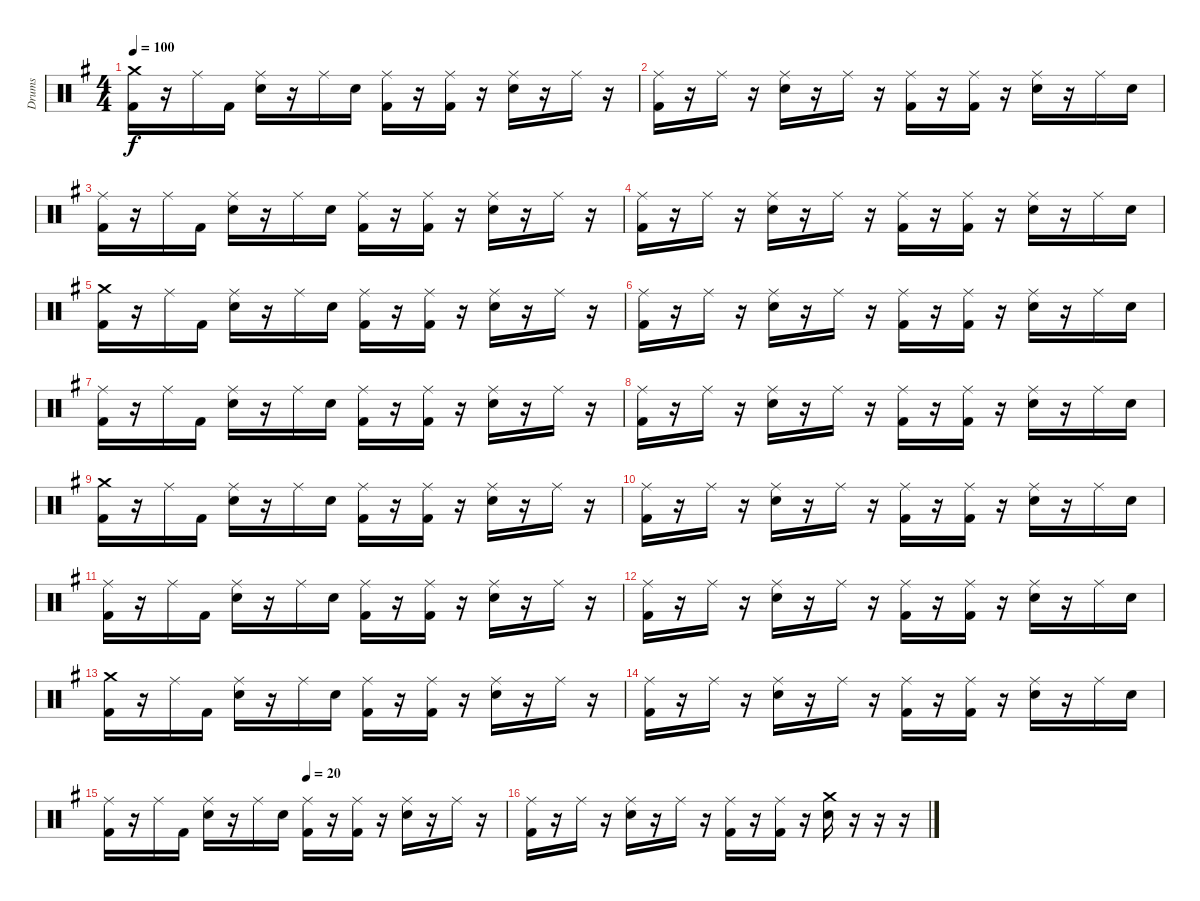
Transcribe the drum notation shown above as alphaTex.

\track ("Drums" "Drums") {instrument percussion}
\staff {score}
\articulation defaults
\ts (4 4)
\tempo 100
\clef neutral
\ks eminor
("Crash medium (hit)" "Kick (hit) 2").16{dy f} r.16 "Ride (middle)".16 "Kick (hit) 2".16 ("Ride (middle)" "Electric Snare (hit)").16 r.16 "Ride (middle)".16 "Electric Snare (hit)".16 ("Ride (middle)" "Kick (hit) 2").16 r.16 ("Ride (middle)" "Kick (hit) 2").16 r.16 ("Ride (middle)" "Electric Snare (hit)").16 r.16 "Ride (middle)".16 r.16 |
("Ride (middle)" "Kick (hit) 2").16 r.16 "Ride (middle)".16 r.16 ("Ride (middle)" "Electric Snare (hit)").16 r.16 "Ride (middle)".16 r.16 ("Ride (middle)" "Kick (hit) 2").16 r.16 ("Ride (middle)" "Kick (hit) 2").16 r.16 ("Ride (middle)" "Electric Snare (hit)").16 r.16 "Ride (middle)".16 "Electric Snare (hit)".16 |
("Ride (middle)" "Kick (hit) 2").16 r.16 "Ride (middle)".16 "Kick (hit) 2".16 ("Ride (middle)" "Electric Snare (hit)").16 r.16 "Ride (middle)".16 "Electric Snare (hit)".16 ("Ride (middle)" "Kick (hit) 2").16 r.16 ("Ride (middle)" "Kick (hit) 2").16 r.16 ("Ride (middle)" "Electric Snare (hit)").16 r.16 "Ride (middle)".16 r.16 |
("Ride (middle)" "Kick (hit) 2").16 r.16 "Ride (middle)".16 r.16 ("Ride (middle)" "Electric Snare (hit)").16 r.16 "Ride (middle)".16 r.16 ("Ride (middle)" "Kick (hit) 2").16 r.16 ("Ride (middle)" "Kick (hit) 2").16 r.16 ("Ride (middle)" "Electric Snare (hit)").16 r.16 "Ride (middle)".16 "Electric Snare (hit)".16 |
("Crash medium (hit)" "Kick (hit) 2").16 r.16 "Ride (middle)".16 "Kick (hit) 2".16 ("Ride (middle)" "Electric Snare (hit)").16 r.16 "Ride (middle)".16 "Electric Snare (hit)".16 ("Ride (middle)" "Kick (hit) 2").16 r.16 ("Ride (middle)" "Kick (hit) 2").16 r.16 ("Ride (middle)" "Electric Snare (hit)").16 r.16 "Ride (middle)".16 r.16 |
("Ride (middle)" "Kick (hit) 2").16 r.16 "Ride (middle)".16 r.16 ("Ride (middle)" "Electric Snare (hit)").16 r.16 "Ride (middle)".16 r.16 ("Ride (middle)" "Kick (hit) 2").16 r.16 ("Ride (middle)" "Kick (hit) 2").16 r.16 ("Ride (middle)" "Electric Snare (hit)").16 r.16 "Ride (middle)".16 "Electric Snare (hit)".16 |
("Ride (middle)" "Kick (hit) 2").16 r.16 "Ride (middle)".16 "Kick (hit) 2".16 ("Ride (middle)" "Electric Snare (hit)").16 r.16 "Ride (middle)".16 "Electric Snare (hit)".16 ("Ride (middle)" "Kick (hit) 2").16 r.16 ("Ride (middle)" "Kick (hit) 2").16 r.16 ("Ride (middle)" "Electric Snare (hit)").16 r.16 "Ride (middle)".16 r.16 |
("Ride (middle)" "Kick (hit) 2").16 r.16 "Ride (middle)".16 r.16 ("Ride (middle)" "Electric Snare (hit)").16 r.16 "Ride (middle)".16 r.16 ("Ride (middle)" "Kick (hit) 2").16 r.16 ("Ride (middle)" "Kick (hit) 2").16 r.16 ("Ride (middle)" "Electric Snare (hit)").16 r.16 "Ride (middle)".16 "Electric Snare (hit)".16 |
("Crash medium (hit)" "Kick (hit) 2").16 r.16 "Ride (middle)".16 "Kick (hit) 2".16 ("Ride (middle)" "Electric Snare (hit)").16 r.16 "Ride (middle)".16 "Electric Snare (hit)".16 ("Ride (middle)" "Kick (hit) 2").16 r.16 ("Ride (middle)" "Kick (hit) 2").16 r.16 ("Ride (middle)" "Electric Snare (hit)").16 r.16 "Ride (middle)".16 r.16 |
("Ride (middle)" "Kick (hit) 2").16 r.16 "Ride (middle)".16 r.16 ("Ride (middle)" "Electric Snare (hit)").16 r.16 "Ride (middle)".16 r.16 ("Ride (middle)" "Kick (hit) 2").16 r.16 ("Ride (middle)" "Kick (hit) 2").16 r.16 ("Ride (middle)" "Electric Snare (hit)").16 r.16 "Ride (middle)".16 "Electric Snare (hit)".16 |
("Ride (middle)" "Kick (hit) 2").16 r.16 "Ride (middle)".16 "Kick (hit) 2".16 ("Ride (middle)" "Electric Snare (hit)").16 r.16 "Ride (middle)".16 "Electric Snare (hit)".16 ("Ride (middle)" "Kick (hit) 2").16 r.16 ("Ride (middle)" "Kick (hit) 2").16 r.16 ("Ride (middle)" "Electric Snare (hit)").16 r.16 "Ride (middle)".16 r.16 |
("Ride (middle)" "Kick (hit) 2").16 r.16 "Ride (middle)".16 r.16 ("Ride (middle)" "Electric Snare (hit)").16 r.16 "Ride (middle)".16 r.16 ("Ride (middle)" "Kick (hit) 2").16 r.16 ("Ride (middle)" "Kick (hit) 2").16 r.16 ("Ride (middle)" "Electric Snare (hit)").16 r.16 "Ride (middle)".16 "Electric Snare (hit)".16 |
("Crash medium (hit)" "Kick (hit) 2").16 r.16 "Ride (middle)".16 "Kick (hit) 2".16 ("Ride (middle)" "Electric Snare (hit)").16 r.16 "Ride (middle)".16 "Electric Snare (hit)".16 ("Ride (middle)" "Kick (hit) 2").16 r.16 ("Ride (middle)" "Kick (hit) 2").16 r.16 ("Ride (middle)" "Electric Snare (hit)").16 r.16 "Ride (middle)".16 r.16 |
("Ride (middle)" "Kick (hit) 2").16 r.16 "Ride (middle)".16 r.16 ("Ride (middle)" "Electric Snare (hit)").16 r.16 "Ride (middle)".16 r.16 ("Ride (middle)" "Kick (hit) 2").16 r.16 ("Ride (middle)" "Kick (hit) 2").16 r.16 ("Ride (middle)" "Electric Snare (hit)").16 r.16 "Ride (middle)".16 "Electric Snare (hit)".16 |
\tempo (20 0.5)
("Ride (middle)" "Kick (hit) 2").16 r.16 "Ride (middle)".16 "Kick (hit) 2".16 ("Ride (middle)" "Electric Snare (hit)").16 r.16 "Ride (middle)".16 "Electric Snare (hit)".16 ("Ride (middle)" "Kick (hit) 2").16 r.16 ("Ride (middle)" "Kick (hit) 2").16 r.16 ("Ride (middle)" "Electric Snare (hit)").16 r.16 "Ride (middle)".16 r.16 |
("Ride (middle)" "Kick (hit) 2").16 r.16 "Ride (middle)".16 r.16 ("Ride (middle)" "Electric Snare (hit)").16 r.16 "Ride (middle)".16 r.16 ("Ride (middle)" "Kick (hit) 2").16 r.16 ("Ride (middle)" "Kick (hit) 2").16 r.16 ("Crash medium (hit)" "Electric Snare (hit)").16 r.16 r.16 r.16
